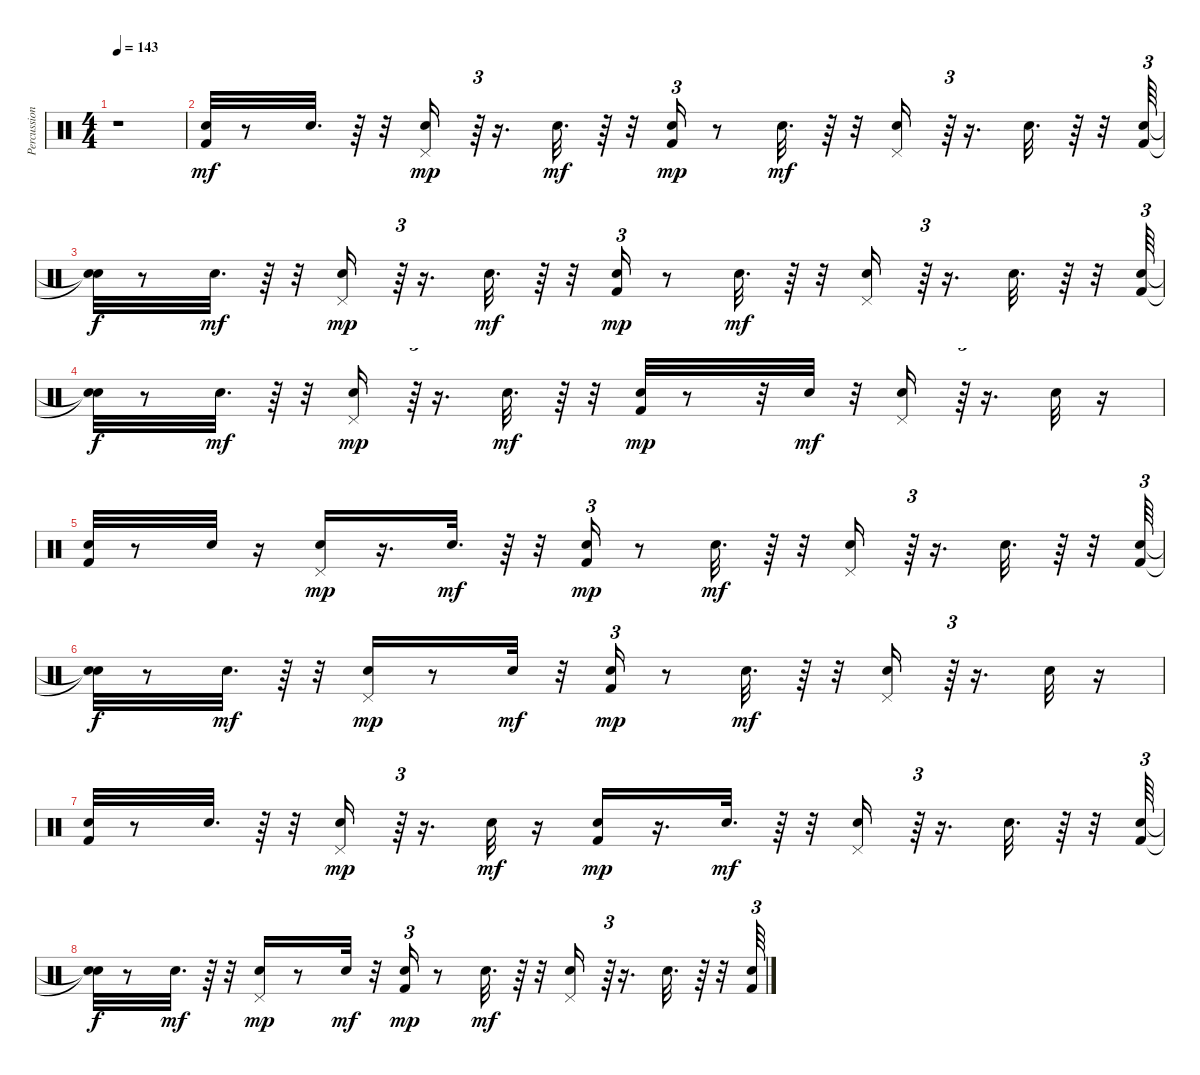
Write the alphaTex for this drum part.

\track ("Percussion" "Percussion") {instrument percussion}
\staff {score}
\articulation defaults
\ts (4 4)
\tempo 143
\clef neutral
\ks c
r.1{dy mf} |
("Kick (hit) 2" "Snare (hit) 2").32 r.8 "Snare (hit) 2".32{d} r.64 r.32 ("Hand Clap (hit)" "Pedal Hi-Hat (hit)").16{dy mp} r.64{tu (3 2)} r.16{d} "Hand Clap (hit)".32{d dy mf} r.64 r.32 ("Kick (hit) 2" "Snare (hit) 2").16{tu (3 2) dy mp} r.8 "Snare (hit) 2".32{d dy mf} r.64 r.32 ("Hand Clap (hit)" "Pedal Hi-Hat (hit)").16 r.64{tu (3 2)} r.16{d} "Hand Clap (hit)".32{d} r.64 r.32 ("Kick (hit) 2" "Snare (hit) 2").64{tu (3 2)} |
("Snare (hit)"{t} "Snare (hit)"{t}).32{dy f} r.8 "Snare (hit) 2".32{d dy mf} r.64 r.32 ("Hand Clap (hit)" "Pedal Hi-Hat (hit)").16{dy mp} r.64{tu (3 2)} r.16{d} "Hand Clap (hit)".32{d dy mf} r.64 r.32 ("Kick (hit) 2" "Snare (hit) 2").16{tu (3 2) dy mp} r.8 "Snare (hit) 2".32{d dy mf} r.64 r.32 ("Hand Clap (hit)" "Pedal Hi-Hat (hit)").16 r.64{tu (3 2)} r.16{d} "Hand Clap (hit)".32{d} r.64 r.32 ("Kick (hit) 2" "Snare (hit) 2").64{tu (3 2)} |
("Snare (hit)"{t} "Snare (hit)"{t}).32{dy f} r.8 "Snare (hit) 2".32{d dy mf} r.64 r.32 ("Hand Clap (hit)" "Pedal Hi-Hat (hit)").16{dy mp} r.64{tu (3 2)} r.16{d} "Hand Clap (hit)".32{d dy mf} r.64 r.32 ("Kick (hit) 2" "Snare (hit) 2").32{dy mp} r.8 r.32 "Snare (hit) 2".32{dy mf} r.32 ("Hand Clap (hit)" "Pedal Hi-Hat (hit)").16 r.64{tu (3 2)} r.16{d} "Hand Clap (hit)".32 r.16 |
("Kick (hit) 2" "Snare (hit) 2").32 r.8 "Snare (hit) 2".32 r.16 ("Hand Clap (hit)" "Pedal Hi-Hat (hit)").16{dy mp} r.16{d} "Hand Clap (hit)".32{d dy mf} r.64 r.32 ("Kick (hit) 2" "Snare (hit) 2").16{tu (3 2) dy mp} r.8 "Snare (hit) 2".32{d dy mf} r.64 r.32 ("Hand Clap (hit)" "Pedal Hi-Hat (hit)").16 r.64{tu (3 2)} r.16{d} "Hand Clap (hit)".32{d} r.64 r.32 ("Kick (hit) 2" "Snare (hit) 2").64{tu (3 2)} |
("Snare (hit)"{t} "Snare (hit)"{t}).32{dy f} r.8 "Snare (hit) 2".32{d dy mf} r.64 r.32 ("Hand Clap (hit)" "Pedal Hi-Hat (hit)").16{dy mp} r.8 "Hand Clap (hit)".32{dy mf} r.32 ("Kick (hit) 2" "Snare (hit) 2").16{tu (3 2) dy mp} r.8 "Snare (hit) 2".32{d dy mf} r.64 r.32 ("Hand Clap (hit)" "Pedal Hi-Hat (hit)").16 r.64{tu (3 2)} r.16{d} "Hand Clap (hit)".32 r.16 |
("Kick (hit) 2" "Snare (hit) 2").32 r.8 "Snare (hit) 2".32{d} r.64 r.32 ("Hand Clap (hit)" "Pedal Hi-Hat (hit)").16{dy mp} r.64{tu (3 2)} r.16{d} "Hand Clap (hit)".32{dy mf} r.16 ("Kick (hit) 2" "Snare (hit) 2").16{dy mp} r.16{d} "Snare (hit) 2".32{d dy mf} r.64 r.32 ("Hand Clap (hit)" "Pedal Hi-Hat (hit)").16 r.64{tu (3 2)} r.16{d} "Hand Clap (hit)".32{d} r.64 r.32 ("Kick (hit) 2" "Snare (hit) 2").64{tu (3 2)} |
("Snare (hit)"{t} "Snare (hit)"{t}).32{dy f} r.8 "Snare (hit) 2".32{d dy mf} r.64 r.32 ("Hand Clap (hit)" "Pedal Hi-Hat (hit)").16{dy mp} r.8 "Hand Clap (hit)".32{dy mf} r.32 ("Kick (hit) 2" "Snare (hit) 2").16{tu (3 2) dy mp} r.8 "Snare (hit) 2".32{d dy mf} r.64 r.32 ("Hand Clap (hit)" "Pedal Hi-Hat (hit)").16 r.64{tu (3 2)} r.16{d} "Hand Clap (hit)".32{d} r.64 r.32 ("Kick (hit) 2" "Snare (hit) 2").64{tu (3 2)}
